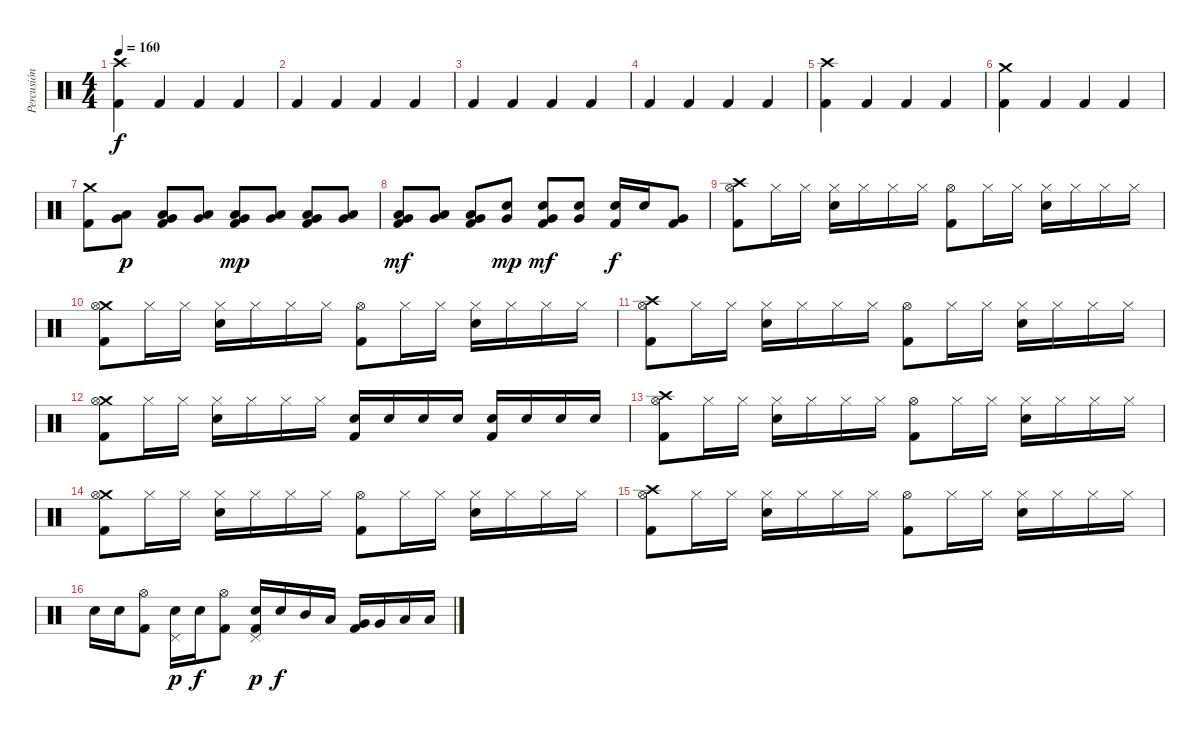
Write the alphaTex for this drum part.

\track ("Percusión" "Percusión") {instrument percussion}
\staff {score}
\articulation defaults
\ts (4 4)
\tempo 160
\clef neutral
\ks c
("Crash high (hit)" "Kick (hit) 2").4{dy f} "Kick (hit) 2".4 "Kick (hit) 2".4 "Kick (hit) 2".4 |
"Kick (hit) 2".4 "Kick (hit) 2".4 "Kick (hit) 2".4 "Kick (hit) 2".4 |
"Kick (hit) 2".4 "Kick (hit) 2".4 "Kick (hit) 2".4 "Kick (hit) 2".4 |
"Kick (hit) 2".4 "Kick (hit) 2".4 "Kick (hit) 2".4 "Kick (hit) 2".4 |
("Crash high (hit)" "Kick (hit) 2").4 "Kick (hit) 2".4 "Kick (hit) 2".4 "Kick (hit) 2".4 |
("Crash medium (hit)" "Kick (hit) 2").4 "Kick (hit) 2".4 "Kick (hit) 2".4 "Kick (hit) 2".4 |
("Crash medium (hit)" "Kick (hit) 2").8 ("Very Low Tom (hit)" "Low Floor Tom (hit)").8{dy p} ("Very Low Tom (hit)" "Low Floor Tom (hit)" "Kick (hit) 2").8 ("Very Low Tom (hit)" "Low Floor Tom (hit)").8 ("Very Low Tom (hit)" "Low Floor Tom (hit)" "Kick (hit) 2").8{dy mp} ("Very Low Tom (hit)" "Low Floor Tom (hit)").8 ("Very Low Tom (hit)" "Low Floor Tom (hit)" "Kick (hit) 2").8 ("Very Low Tom (hit)" "Low Floor Tom (hit)").8 |
("Very Low Tom (hit)" "Low Floor Tom (hit)" "Kick (hit) 2").8{dy mf} ("Very Low Tom (hit)" "Low Floor Tom (hit)").8 ("Very Low Tom (hit)" "Low Floor Tom (hit)" "Kick (hit) 2").8 ("Very Low Tom (hit)" "Electric Snare (hit)").8{dy mp} ("Very Low Tom (hit)" "Electric Snare (hit)" "Kick (hit) 2").8{dy mf} ("Very Low Tom (hit)" "Electric Snare (hit)").8 ("Electric Snare (hit)" "Kick (hit) 2").16{dy f} "Electric Snare (hit)".16 ("Very Low Tom (hit)" "Kick (hit) 2").8 |
("Crash high (hit)" "Hi-Hat (open)" "Kick (hit) 2").8 "Hi-Hat (closed)".16 "Hi-Hat (closed)".16 ("Hi-Hat (closed)" "Electric Snare (hit)").16 "Hi-Hat (closed)".16 "Hi-Hat (closed)".16 "Hi-Hat (closed)".16 ("Hi-Hat (open)" "Kick (hit) 2").8 "Hi-Hat (closed)".16 "Hi-Hat (closed)".16 ("Hi-Hat (closed)" "Electric Snare (hit)").16 "Hi-Hat (closed)".16 "Hi-Hat (closed)".16 "Hi-Hat (closed)".16 |
("Crash medium (hit)" "Hi-Hat (open)" "Kick (hit) 2").8 "Hi-Hat (closed)".16 "Hi-Hat (closed)".16 ("Hi-Hat (closed)" "Electric Snare (hit)").16 "Hi-Hat (closed)".16 "Hi-Hat (closed)".16 "Hi-Hat (closed)".16 ("Hi-Hat (open)" "Kick (hit) 2").8 "Hi-Hat (closed)".16 "Hi-Hat (closed)".16 ("Hi-Hat (closed)" "Electric Snare (hit)").16 "Hi-Hat (closed)".16 "Hi-Hat (closed)".16 "Hi-Hat (closed)".16 |
("Crash high (hit)" "Hi-Hat (open)" "Kick (hit) 2").8 "Hi-Hat (closed)".16 "Hi-Hat (closed)".16 ("Hi-Hat (closed)" "Electric Snare (hit)").16 "Hi-Hat (closed)".16 "Hi-Hat (closed)".16 "Hi-Hat (closed)".16 ("Hi-Hat (open)" "Kick (hit) 2").8 "Hi-Hat (closed)".16 "Hi-Hat (closed)".16 ("Hi-Hat (closed)" "Electric Snare (hit)").16 "Hi-Hat (closed)".16 "Hi-Hat (closed)".16 "Hi-Hat (closed)".16 |
("Crash medium (hit)" "Hi-Hat (open)" "Kick (hit) 2").8 "Hi-Hat (closed)".16 "Hi-Hat (closed)".16 ("Hi-Hat (closed)" "Electric Snare (hit)").16 "Hi-Hat (closed)".16 "Hi-Hat (closed)".16 "Hi-Hat (closed)".16 ("Kick (hit) 2" "Electric Snare (hit)").16 "Electric Snare (hit)".16 "Electric Snare (hit)".16 "Electric Snare (hit)".16 ("Kick (hit) 2" "Electric Snare (hit)").16 "Electric Snare (hit)".16 "Electric Snare (hit)".16 "Electric Snare (hit)".16 |
("Crash high (hit)" "Hi-Hat (open)" "Kick (hit) 2").8 "Hi-Hat (closed)".16 "Hi-Hat (closed)".16 ("Hi-Hat (closed)" "Electric Snare (hit)").16 "Hi-Hat (closed)".16 "Hi-Hat (closed)".16 "Hi-Hat (closed)".16 ("Hi-Hat (open)" "Kick (hit) 2").8 "Hi-Hat (closed)".16 "Hi-Hat (closed)".16 ("Hi-Hat (closed)" "Electric Snare (hit)").16 "Hi-Hat (closed)".16 "Hi-Hat (closed)".16 "Hi-Hat (closed)".16 |
("Crash medium (hit)" "Hi-Hat (open)" "Kick (hit) 2").8 "Hi-Hat (closed)".16 "Hi-Hat (closed)".16 ("Hi-Hat (closed)" "Electric Snare (hit)").16 "Hi-Hat (closed)".16 "Hi-Hat (closed)".16 "Hi-Hat (closed)".16 ("Hi-Hat (open)" "Kick (hit) 2").8 "Hi-Hat (closed)".16 "Hi-Hat (closed)".16 ("Hi-Hat (closed)" "Electric Snare (hit)").16 "Hi-Hat (closed)".16 "Hi-Hat (closed)".16 "Hi-Hat (closed)".16 |
("Crash high (hit)" "Hi-Hat (open)" "Kick (hit) 2").8 "Hi-Hat (closed)".16 "Hi-Hat (closed)".16 ("Hi-Hat (closed)" "Electric Snare (hit)").16 "Hi-Hat (closed)".16 "Hi-Hat (closed)".16 "Hi-Hat (closed)".16 ("Hi-Hat (open)" "Kick (hit) 2").8 "Hi-Hat (closed)".16 "Hi-Hat (closed)".16 ("Hi-Hat (closed)" "Electric Snare (hit)").16 "Hi-Hat (closed)".16 "Hi-Hat (closed)".16 "Hi-Hat (closed)".16 |
"Electric Snare (hit)".16 "Electric Snare (hit)".16 ("Hi-Hat (open)" "Kick (hit) 2").8 ("Pedal Hi-Hat (hit)" "Electric Snare (hit)").16{dy p} "Electric Snare (hit)".16{dy f} ("Hi-Hat (open)" "Kick (hit) 2").8 ("Pedal Hi-Hat (hit)" "Electric Snare (hit)" "Kick (hit) 2").16{dy p} "Electric Snare (hit)".16{dy f} "Mid Tom (hit)".16 "Low Tom (hit)".16 ("Very Low Tom (hit)" "Kick (hit) 2").16 "Very Low Tom (hit)".16 "Low Floor Tom (hit)".16 "Low Floor Tom (hit)".16
